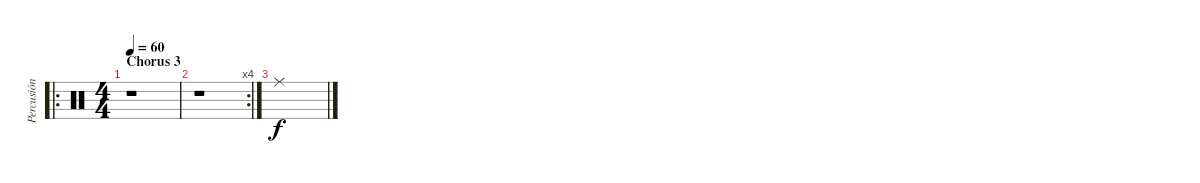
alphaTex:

\track ("Percusión" "Percusión") {instrument percussion}
\staff {score}
\articulation defaults
\ro
\ts (4 4)
\section ("" "Chorus 3")
\tempo 60
\clef neutral
\ks c
r.1{dy f} |
\rc 4
r.1 |
"Ride (middle)".1
